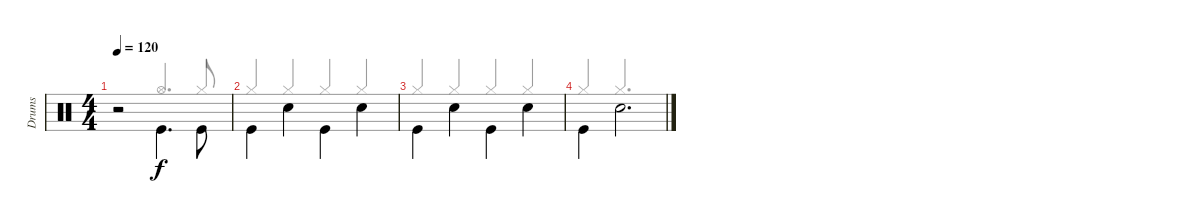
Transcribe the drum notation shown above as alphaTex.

\track ("Drums" "Drums") {instrument percussion}
\staff {score}
\articulation defaults
\voice
\ts (4 4)
\tempo 120
\clef neutral
\ks c
r.2{dy f} "Kick (hit)".4{d beam Down} "Kick (hit)".8{beam Down} |
"Kick (hit)".4{beam Down} "Snare (hit) 2".4{beam Down} "Kick (hit)".4{beam Down} "Snare (hit) 2".4{beam Down} |
"Kick (hit)".4{beam Down} "Snare (hit) 2".4{beam Down} "Kick (hit)".4{beam Down} "Snare (hit) 2".4{beam Down} |
"Kick (hit)".4{beam Down} "Snare (hit) 2".2{d beam Down}
\voice
\clef neutral
\ottava regular
\simile none
\ks c
r.2{dy f} "Hi-Hat (open)".4{d beam Up} "Hi-Hat (closed)".8{beam Up} |
"Hi-Hat (closed)".4{beam Up} "Hi-Hat (closed)".4{beam Up} "Hi-Hat (closed)".4{beam Up} "Hi-Hat (closed)".4{beam Up} |
"Hi-Hat (closed)".4{beam Up} "Hi-Hat (closed)".4{beam Up} "Hi-Hat (closed)".4{beam Up} "Hi-Hat (closed)".4{beam Up} |
"Hi-Hat (closed)".4{beam Up} "Hi-Hat (closed)".2{d beam Up}
